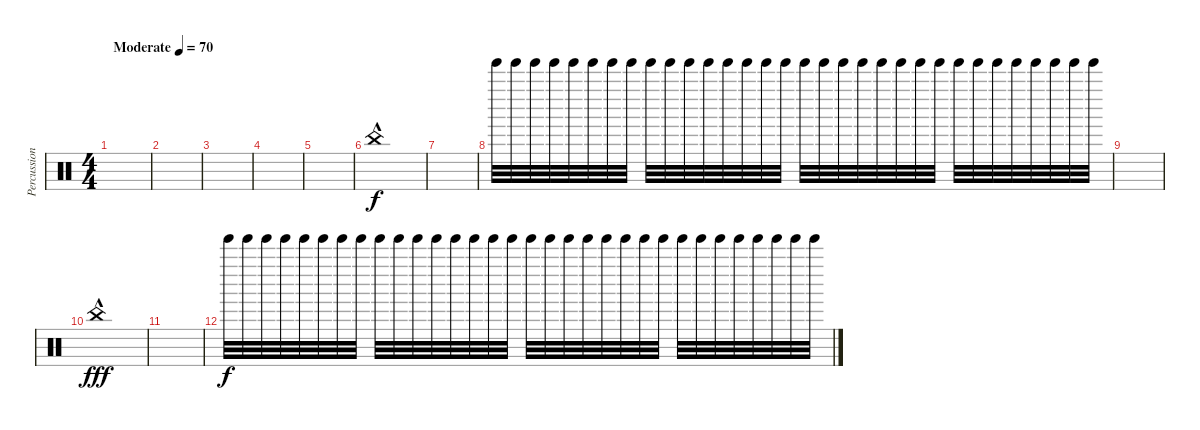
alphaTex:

\track ("Percussion" "Percussion") {instrument percussion}
\staff {score}
\articulation defaults
\ts (4 4)
\tempo (70 "Moderate")
\clef neutral
\ks c
|
|
|
|
|
"China (hit)"{hac}.1 |
|
"Tinkle Bell (hit)".32{dy f volume 13} "Tinkle Bell (hit)".32 "Tinkle Bell (hit)".32 "Tinkle Bell (hit)".32 "Tinkle Bell (hit)".32 "Tinkle Bell (hit)".32 "Tinkle Bell (hit)".32 "Tinkle Bell (hit)".32 "Tinkle Bell (hit)".32 "Tinkle Bell (hit)".32 "Tinkle Bell (hit)".32 "Tinkle Bell (hit)".32 "Tinkle Bell (hit)".32 "Tinkle Bell (hit)".32 "Tinkle Bell (hit)".32 "Tinkle Bell (hit)".32 "Tinkle Bell (hit)".32 "Tinkle Bell (hit)".32 "Tinkle Bell (hit)".32 "Tinkle Bell (hit)".32 "Tinkle Bell (hit)".32 "Tinkle Bell (hit)".32 "Tinkle Bell (hit)".32 "Tinkle Bell (hit)".32 "Tinkle Bell (hit)".32 "Tinkle Bell (hit)".32 "Tinkle Bell (hit)".32 "Tinkle Bell (hit)".32 "Tinkle Bell (hit)".32 "Tinkle Bell (hit)".32 "Tinkle Bell (hit)".32 "Tinkle Bell (hit)".32 |
|
"China (hit)"{hac}.1{dy fff} |
|
"Tinkle Bell (hit)".32{dy f volume 13} "Tinkle Bell (hit)".32 "Tinkle Bell (hit)".32 "Tinkle Bell (hit)".32 "Tinkle Bell (hit)".32 "Tinkle Bell (hit)".32 "Tinkle Bell (hit)".32 "Tinkle Bell (hit)".32 "Tinkle Bell (hit)".32 "Tinkle Bell (hit)".32 "Tinkle Bell (hit)".32 "Tinkle Bell (hit)".32 "Tinkle Bell (hit)".32 "Tinkle Bell (hit)".32 "Tinkle Bell (hit)".32 "Tinkle Bell (hit)".32 "Tinkle Bell (hit)".32 "Tinkle Bell (hit)".32 "Tinkle Bell (hit)".32 "Tinkle Bell (hit)".32 "Tinkle Bell (hit)".32 "Tinkle Bell (hit)".32 "Tinkle Bell (hit)".32 "Tinkle Bell (hit)".32 "Tinkle Bell (hit)".32 "Tinkle Bell (hit)".32 "Tinkle Bell (hit)".32 "Tinkle Bell (hit)".32 "Tinkle Bell (hit)".32 "Tinkle Bell (hit)".32 "Tinkle Bell (hit)".32 "Tinkle Bell (hit)".32
